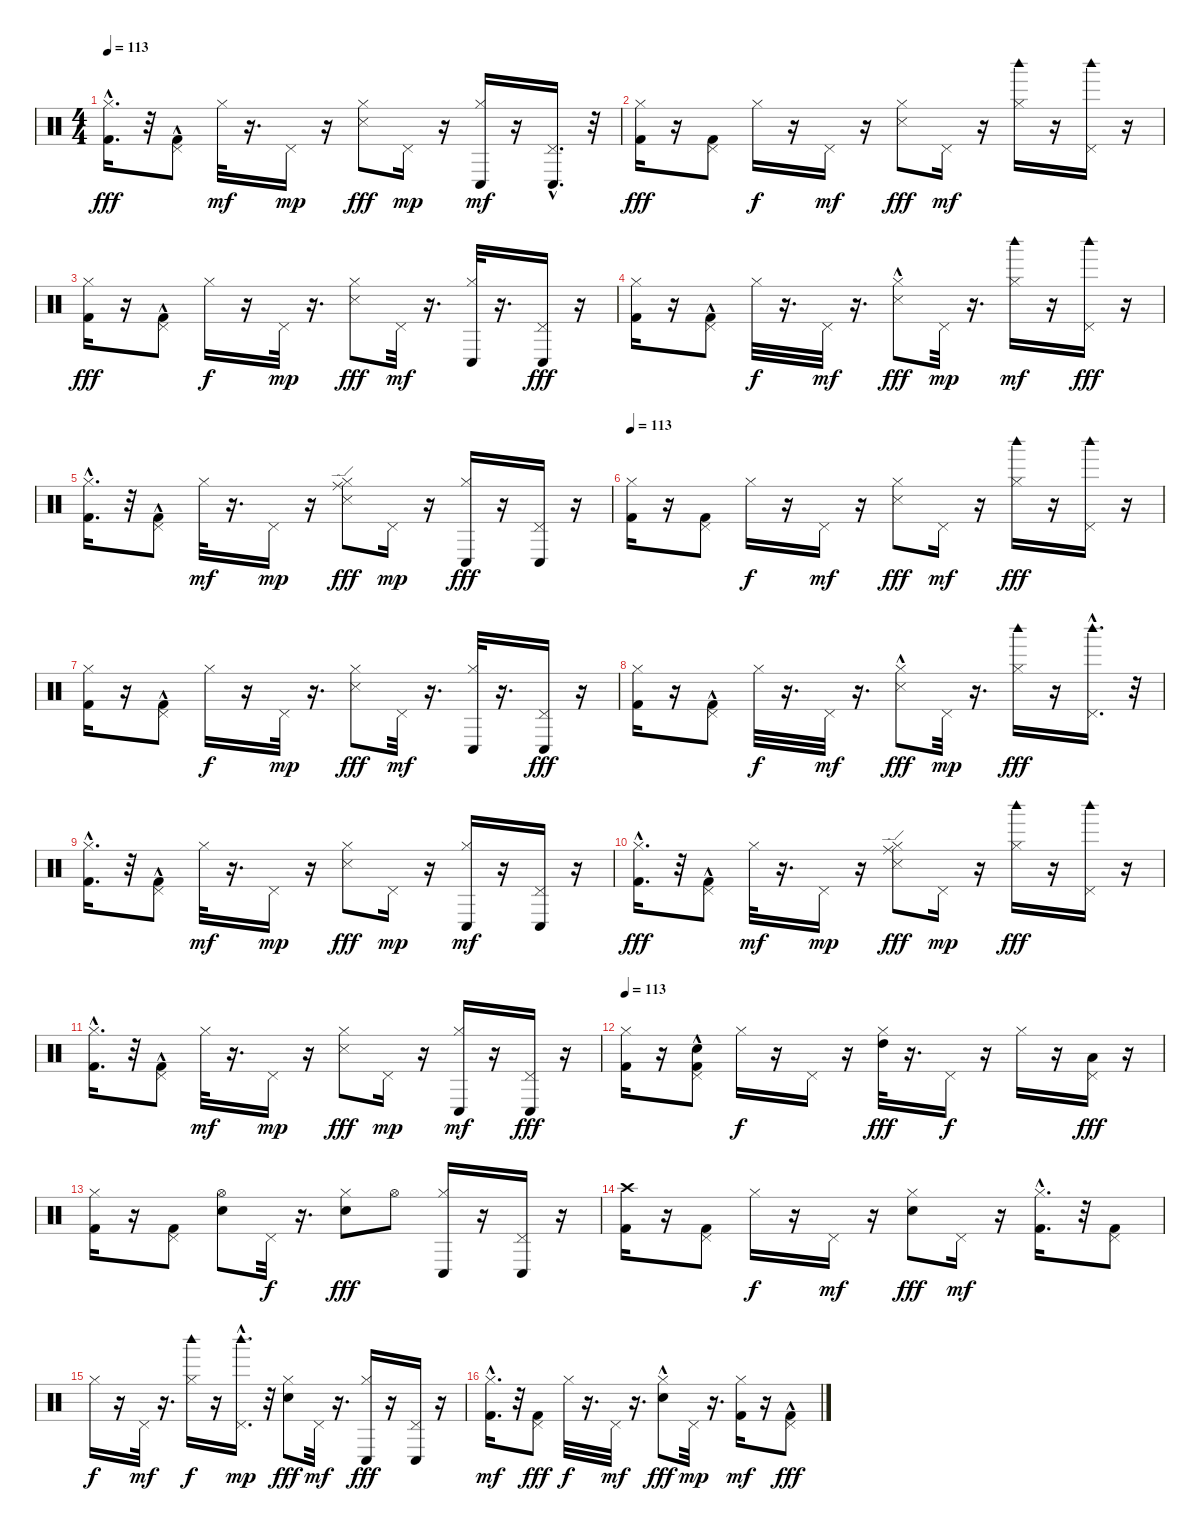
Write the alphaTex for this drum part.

\track "" {instrument percussion}
\staff {score}
\articulation defaults
\ts (4 4)
\tempo 113
\clef neutral
\ks c
("Hi-Hat (closed)" "Kick (hit) 2"{hac}).16{d dy fff} r.32 ("Pedal Hi-Hat (hit)" "Kick (hit) 2"{hac}).8 "Hi-Hat (closed)".32{dy mf} r.16{d} "Pedal Hi-Hat (hit)".16{dy mp} r.16 ("Hi-Hat (closed)" "Snare (side stick) 3").8{dy fff} "Pedal Hi-Hat (hit)".16{dy mp} r.16 ("Conga low (hit)" "Hi-Hat (closed)").16{dy mf} r.16 ("Conga low (hit)"{hac} "Pedal Hi-Hat (hit)").16{d} r.32 |
("Hi-Hat (closed)" "Kick (hit) 2").16{dy fff} r.16 ("Pedal Hi-Hat (hit)" "Kick (hit) 2").8 "Hi-Hat (closed)".16{dy f} r.16 "Pedal Hi-Hat (hit)".16{dy mf} r.16 ("Hi-Hat (closed)" "Snare (side stick) 3").8{dy fff} "Pedal Hi-Hat (hit)".16{dy mf} r.16 ("Woodblock high (hit)" "Hi-Hat (closed)").16 r.16 ("Woodblock high (hit)" "Pedal Hi-Hat (hit)").16 r.16 |
("Hi-Hat (closed)" "Kick (hit) 2").16{dy fff} r.16 ("Pedal Hi-Hat (hit)" "Kick (hit) 2"{hac}).8 "Hi-Hat (closed)".16{dy f} r.16 "Pedal Hi-Hat (hit)".32{dy mp} r.16{d} ("Hi-Hat (closed)" "Snare (side stick) 3").8{dy fff} "Pedal Hi-Hat (hit)".32{dy mf} r.16{d} ("Conga low (hit)" "Hi-Hat (closed)").32 r.16{d} ("Pedal Hi-Hat (hit)" "Conga low (hit)").16{dy fff} r.16 |
("Hi-Hat (closed)" "Kick (hit) 2").16 r.16 ("Pedal Hi-Hat (hit)" "Kick (hit) 2"{hac}).8 "Hi-Hat (closed)".32{dy f} r.16{d} "Pedal Hi-Hat (hit)".32{dy mf} r.16{d} ("Hi-Hat (closed)" "Snare (side stick) 3"{hac}).8{dy fff} "Pedal Hi-Hat (hit)".32{dy mp} r.16{d} ("Woodblock high (hit)" "Hi-Hat (closed)").16{dy mf} r.16 ("Pedal Hi-Hat (hit)" "Woodblock high (hit)").16{dy fff} r.16 |
("Hi-Hat (closed)" "Kick (hit) 2"{hac}).16{d} r.32 ("Pedal Hi-Hat (hit)" "Kick (hit) 2"{hac}).8 "Hi-Hat (closed)".32{dy mf} r.16{d} "Pedal Hi-Hat (hit)".16{dy mp} r.16 ("Ride (edge)" "Hi-Hat (closed)" "Snare (side stick) 3").8{dy fff} "Pedal Hi-Hat (hit)".16{dy mp} r.16 ("Hi-Hat (closed)" "Conga low (hit)").16{dy fff} r.16 ("Pedal Hi-Hat (hit)" "Conga low (hit)").16 r.16 |
\tempo 113
("Hi-Hat (closed)" "Kick (hit) 2").16 r.16 ("Pedal Hi-Hat (hit)" "Kick (hit) 2").8 "Hi-Hat (closed)".16{dy f} r.16 "Pedal Hi-Hat (hit)".16{dy mf} r.16 ("Hi-Hat (closed)" "Snare (side stick) 3").8{dy fff} "Pedal Hi-Hat (hit)".16{dy mf} r.16 ("Hi-Hat (closed)" "Woodblock high (hit)").16{dy fff} r.16 ("Pedal Hi-Hat (hit)" "Woodblock high (hit)").16 r.16 |
("Hi-Hat (closed)" "Kick (hit) 2").16 r.16 ("Pedal Hi-Hat (hit)" "Kick (hit) 2"{hac}).8 "Hi-Hat (closed)".16{dy f} r.16 "Pedal Hi-Hat (hit)".32{dy mp} r.16{d} ("Hi-Hat (closed)" "Snare (side stick) 3").8{dy fff} "Pedal Hi-Hat (hit)".32{dy mf} r.16{d} ("Conga low (hit)" "Hi-Hat (closed)").32 r.16{d} ("Pedal Hi-Hat (hit)" "Conga low (hit)").16{dy fff} r.16 |
("Hi-Hat (closed)" "Kick (hit) 2").16 r.16 ("Pedal Hi-Hat (hit)" "Kick (hit) 2"{hac}).8 "Hi-Hat (closed)".32{dy f} r.16{d} "Pedal Hi-Hat (hit)".32{dy mf} r.16{d} ("Hi-Hat (closed)" "Snare (side stick) 3"{hac}).8{dy fff} "Pedal Hi-Hat (hit)".32{dy mp} r.16{d} ("Hi-Hat (closed)" "Woodblock high (hit)").16{dy fff} r.16 ("Pedal Hi-Hat (hit)" "Woodblock high (hit)"{hac}).16{d} r.32 |
("Hi-Hat (closed)" "Kick (hit) 2"{hac}).16{d} r.32 ("Pedal Hi-Hat (hit)" "Kick (hit) 2"{hac}).8 "Hi-Hat (closed)".32{dy mf} r.16{d} "Pedal Hi-Hat (hit)".16{dy mp} r.16 ("Hi-Hat (closed)" "Snare (side stick) 3").8{dy fff} "Pedal Hi-Hat (hit)".16{dy mp} r.16 ("Conga low (hit)" "Hi-Hat (closed)").16{dy mf} r.16 ("Conga low (hit)" "Pedal Hi-Hat (hit)").16 r.16 |
("Hi-Hat (closed)" "Kick (hit) 2"{hac}).16{d dy fff} r.32 ("Pedal Hi-Hat (hit)" "Kick (hit) 2"{hac}).8 "Hi-Hat (closed)".32{dy mf} r.16{d} "Pedal Hi-Hat (hit)".16{dy mp} r.16 ("Ride (edge)" "Hi-Hat (closed)" "Snare (side stick) 3").8{dy fff} "Pedal Hi-Hat (hit)".16{dy mp} r.16 ("Hi-Hat (closed)" "Woodblock high (hit)").16{dy fff} r.16 ("Pedal Hi-Hat (hit)" "Woodblock high (hit)").16 r.16 |
("Hi-Hat (closed)" "Kick (hit) 2"{hac}).16{d} r.32 ("Pedal Hi-Hat (hit)" "Kick (hit) 2"{hac}).8 "Hi-Hat (closed)".32{dy mf} r.16{d} "Pedal Hi-Hat (hit)".16{dy mp} r.16 ("Hi-Hat (closed)" "Snare (side stick) 3").8{dy fff} "Pedal Hi-Hat (hit)".16{dy mp} r.16 ("Conga low (hit)" "Hi-Hat (closed)").16{dy mf} r.16 ("Pedal Hi-Hat (hit)" "Conga low (hit)").16{dy fff} r.16 |
\tempo 113
("Hi-Hat (closed)" "Kick (hit) 2").16 r.16 ("Electric Snare (hit)"{hac} "Pedal Hi-Hat (hit)" "Kick (hit) 2"{hac}).8 "Hi-Hat (closed)".16{dy f} r.16 "Pedal Hi-Hat (hit)".16 r.16 ("Hi-Hat (closed)" "High Tom (hit)").32{dy fff} r.16{d} "Pedal Hi-Hat (hit)".16{dy f} r.16 "Hi-Hat (closed)".16 r.16 ("Low Tom (hit)" "Pedal Hi-Hat (hit)").16{dy fff} r.16 |
("Hi-Hat (closed)" "Kick (hit) 2").16 r.16 ("Pedal Hi-Hat (hit)" "Kick (hit) 2").8 ("Hi-Hat (open)" "Electric Snare (hit)").8 "Pedal Hi-Hat (hit)".32{dy f} r.16{d} ("Electric Snare (hit)" "Hi-Hat (closed)").8{dy fff} "Hi-Hat (open)".8 ("Conga low (hit)" "Hi-Hat (closed)").16 r.16 ("Conga low (hit)" "Pedal Hi-Hat (hit)").16 r.16 |
("Crash high (hit)" "Kick (hit) 2").16 r.16 ("Pedal Hi-Hat (hit)" "Kick (hit) 2").8 "Hi-Hat (closed)".16{dy f} r.16 "Pedal Hi-Hat (hit)".16{dy mf} r.16 ("Hi-Hat (closed)" "Snare (hit) 2").8{dy fff} "Pedal Hi-Hat (hit)".16{dy mf} r.16 ("Kick (hit) 2"{hac} "Hi-Hat (closed)").16{d} r.32 ("Kick (hit) 2" "Pedal Hi-Hat (hit)").8 |
"Hi-Hat (closed)".16{dy f} r.16 "Pedal Hi-Hat (hit)".32{dy mf} r.16{d} ("Hi-Hat (closed)" "Woodblock high (hit)").16{dy f} r.16 ("Pedal Hi-Hat (hit)" "Woodblock high (hit)"{hac}).16{d dy mp} r.32 ("Hi-Hat (closed)" "Snare (hit) 2").8{dy fff} "Pedal Hi-Hat (hit)".32{dy mf} r.16{d} ("Hi-Hat (closed)" "Conga low (hit)").16{dy fff} r.16 ("Pedal Hi-Hat (hit)" "Conga low (hit)").16 r.16 |
("Kick (hit) 2"{hac} "Hi-Hat (closed)").16{d dy mf} r.32 ("Pedal Hi-Hat (hit)" "Kick (hit) 2").8{dy fff} "Hi-Hat (closed)".32{dy f} r.16{d} "Pedal Hi-Hat (hit)".32{dy mf} r.16{d} ("Hi-Hat (closed)" "Snare (hit) 2"{hac}).8{dy fff} "Pedal Hi-Hat (hit)".32{dy mp} r.16{d} ("Kick (hit) 2" "Hi-Hat (closed)").16{dy mf} r.16 ("Pedal Hi-Hat (hit)" "Kick (hit) 2"{hac}).8{dy fff}
